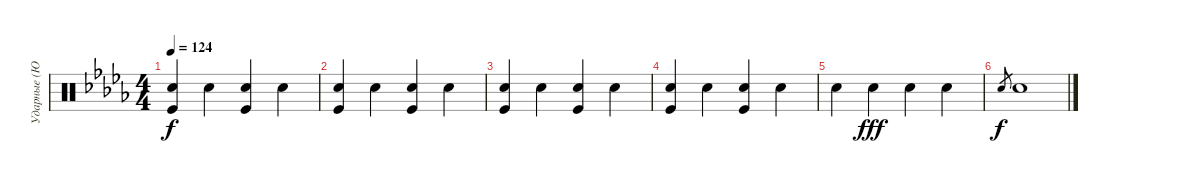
\track ("Ударные (Ю.Борзов)" "Ударные (Ю") {instrument percussion}
\staff {score}
\articulation defaults
\ts (4 4)
\tempo 124
\clef neutral
\ks bbminor
("Snare (hit) 2" "Kick (hit)").4{dy f} "Snare (hit) 2".4 ("Snare (hit) 2" "Kick (hit)").4 "Snare (hit) 2".4 |
("Snare (hit) 2" "Kick (hit)").4 "Snare (hit) 2".4 ("Snare (hit) 2" "Kick (hit)").4 "Snare (hit) 2".4 |
("Snare (hit) 2" "Kick (hit)").4 "Snare (hit) 2".4 ("Snare (hit) 2" "Kick (hit)").4 "Snare (hit) 2".4 |
("Snare (hit) 2" "Kick (hit)").4 "Snare (hit) 2".4 ("Snare (hit) 2" "Kick (hit)").4 "Snare (hit) 2".4 |
"Snare (hit) 2".4 "Snare (hit) 2".4{dy fff} "Snare (hit) 2".4 "Snare (hit) 2".4 |
"Snare (hit) 2".8{gr dy f} "Snare (hit) 2".1
